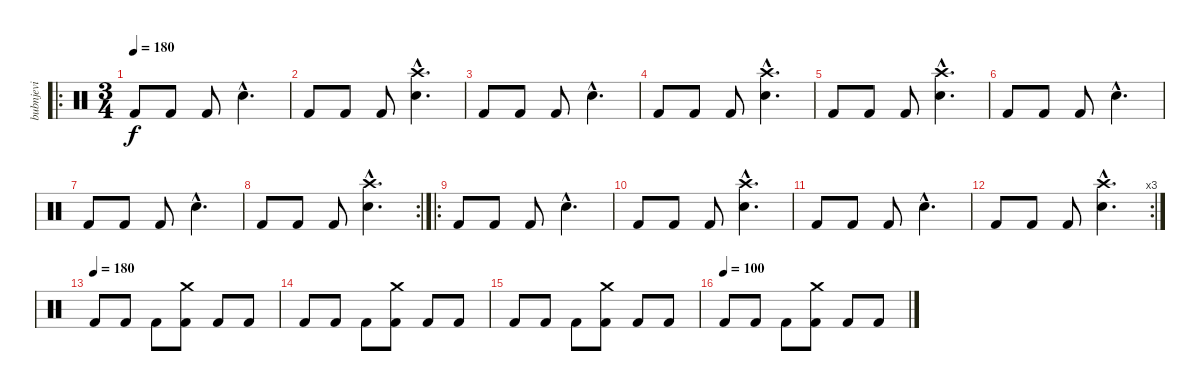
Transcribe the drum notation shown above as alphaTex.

\track ("bubnjevi" "bubnjevi") {instrument percussion}
\staff {score}
\articulation defaults
\ro
\ts (3 4)
\tempo 180
\clef neutral
\ks c "Kick (hit) 2".8{dy f} "Kick (hit) 2".8 "Kick (hit) 2".8 "Snare (hit) 2"{hac}.4{d}
|
"Kick (hit) 2".8 "Kick (hit) 2".8 "Kick (hit) 2".8 ("Crash high (hit)"{hac} "Electric Snare (hit)"{hac}).4{d} |
"Kick (hit) 2".8 "Kick (hit) 2".8 "Kick (hit) 2".8 "Snare (hit) 2"{hac}.4{d} |
"Kick (hit) 2".8 "Kick (hit) 2".8 "Kick (hit) 2".8 ("Crash high (hit)"{hac} "Electric Snare (hit)"{hac}).4{d} |
"Kick (hit) 2".8 "Kick (hit) 2".8 "Kick (hit) 2".8 ("Crash high (hit)"{hac} "Electric Snare (hit)"{hac}).4{d} |
"Kick (hit) 2".8 "Kick (hit) 2".8 "Kick (hit) 2".8 "Snare (hit) 2"{hac}.4{d} |
"Kick (hit) 2".8 "Kick (hit) 2".8 "Kick (hit) 2".8 "Snare (hit) 2"{hac}.4{d} |
\rc 2 "Kick (hit) 2".8 "Kick (hit) 2".8 "Kick (hit) 2".8
("Crash high (hit)"{hac} "Electric Snare (hit)"{hac}).4{d} |
\ro "Kick (hit) 2".8 "Kick (hit) 2".8 "Kick (hit) 2".8 "Snare (hit) 2"{hac}.4{d}
|
"Kick (hit) 2".8 "Kick (hit) 2".8 "Kick (hit) 2".8 ("Crash high (hit)"{hac} "Electric Snare (hit)"{hac}).4{d} |
"Kick (hit) 2".8 "Kick (hit) 2".8 "Kick (hit) 2".8 "Snare (hit) 2"{hac}.4{d} |
\rc 3 "Kick (hit) 2".8 "Kick (hit) 2".8 "Kick (hit) 2".8
("Crash high (hit)"{hac} "Electric Snare (hit)"{hac}).4{d} |
\tempo (180)
"Kick (hit) 2".8 "Kick (hit) 2".8 "Kick (hit) 2".8 ("Crash medium (hit)" "Kick (hit) 2").8 "Kick (hit) 2".8 "Kick (hit) 2".8 |
"Kick (hit) 2".8 "Kick (hit) 2".8 "Kick (hit) 2".8 ("Crash medium (hit)" "Kick (hit) 2").8 "Kick (hit) 2".8 "Kick (hit) 2".8 |
"Kick (hit) 2".8 "Kick (hit) 2".8 "Kick (hit) 2".8 ("Crash medium (hit)" "Kick (hit) 2").8 "Kick (hit) 2".8 "Kick (hit) 2".8 |
\tempo (100)
"Kick (hit) 2".8 "Kick (hit) 2".8 "Kick (hit) 2".8 ("Crash medium (hit)" "Kick (hit) 2").8 "Kick (hit) 2".8 "Kick (hit) 2".8
